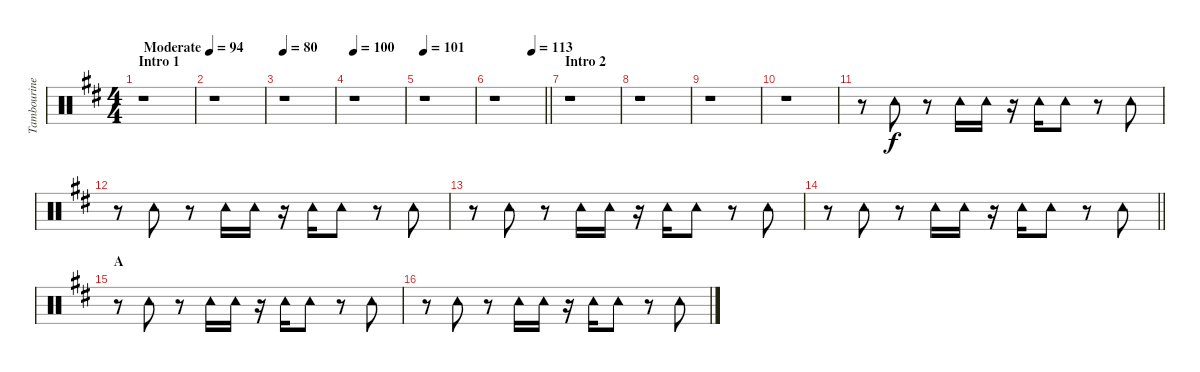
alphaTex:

\track ("Tambourine" "Tambourine") {instrument percussion}
\staff {score}
\articulation defaults
\ts (4 4)
\section ("" "Intro 1")
\tempo (94 "Moderate")
\clef neutral
\ks d
r.1{dy f} |
r.1 |
\tempo 80
r.1 |
\tempo 100
r.1 |
\tempo 101
r.1 |
\tempo (113 0.75)
\barLineRight lightlight
r.1 |
\section ("" "Intro 2")
r.1 |
r.1 |
r.1 |
r.1 |
r.8 "Tambourine (hit)".8 r.8 "Tambourine (hit)".16 "Tambourine (hit)".16 r.16 "Tambourine (hit)".16 "Tambourine (hit)".8 r.8 "Tambourine (hit)".8 |
r.8 "Tambourine (hit)".8 r.8 "Tambourine (hit)".16 "Tambourine (hit)".16 r.16 "Tambourine (hit)".16 "Tambourine (hit)".8 r.8 "Tambourine (hit)".8 |
r.8 "Tambourine (hit)".8 r.8 "Tambourine (hit)".16 "Tambourine (hit)".16 r.16 "Tambourine (hit)".16 "Tambourine (hit)".8 r.8 "Tambourine (hit)".8 |
\barLineRight lightlight
r.8 "Tambourine (hit)".8 r.8 "Tambourine (hit)".16 "Tambourine (hit)".16 r.16 "Tambourine (hit)".16 "Tambourine (hit)".8 r.8 "Tambourine (hit)".8 |
\section ("" "A")
r.8 "Tambourine (hit)".8 r.8 "Tambourine (hit)".16 "Tambourine (hit)".16 r.16 "Tambourine (hit)".16 "Tambourine (hit)".8 r.8 "Tambourine (hit)".8 |
r.8 "Tambourine (hit)".8 r.8 "Tambourine (hit)".16 "Tambourine (hit)".16 r.16 "Tambourine (hit)".16 "Tambourine (hit)".8 r.8 "Tambourine (hit)".8
